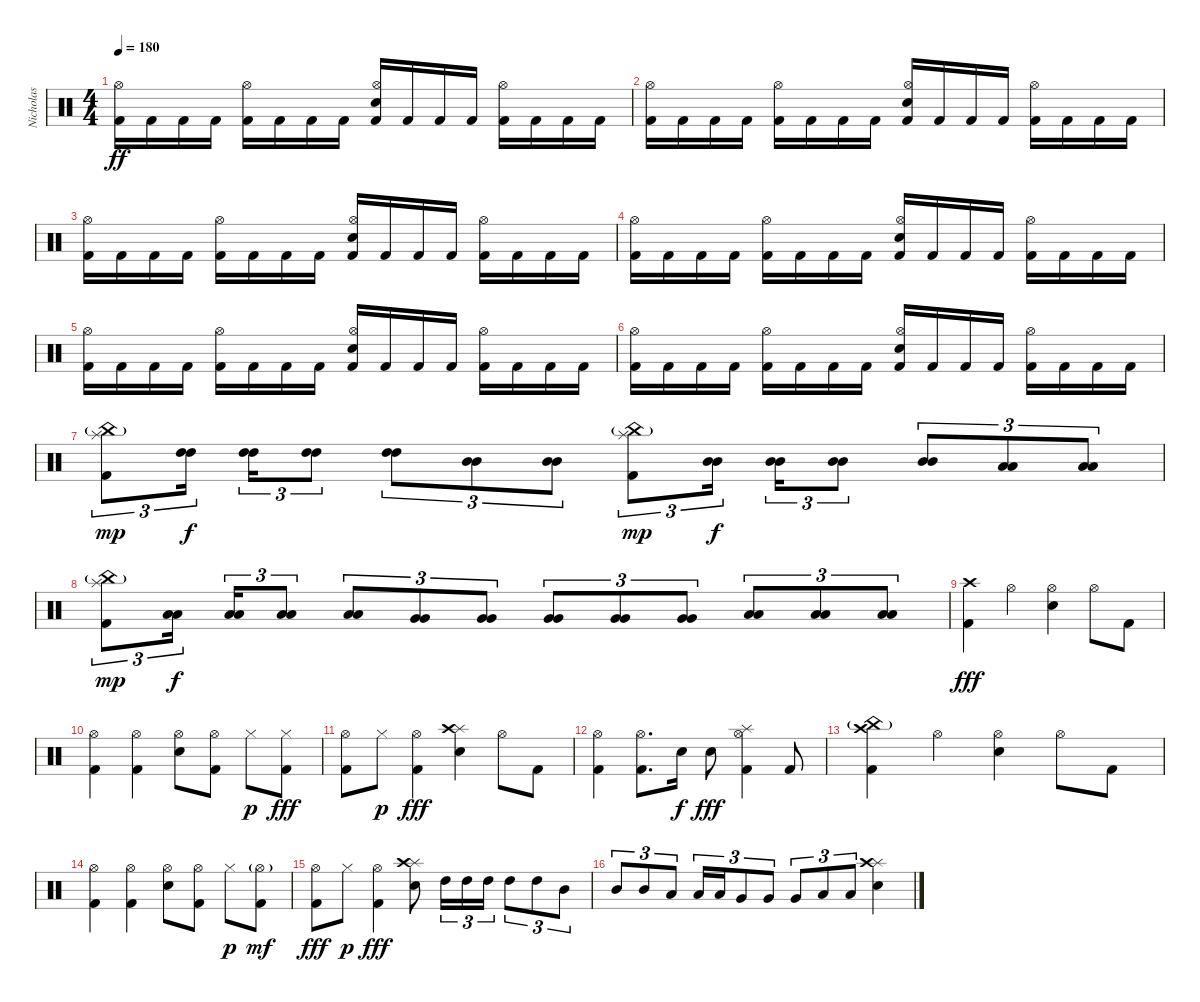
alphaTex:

\track ("Nicholas" "Nicholas") {instrument percussion}
\staff {score}
\articulation defaults
\ts (4 4)
\tempo 180
\clef neutral
\ks c
("Kick (hit) 2" "Hi-Hat (open)").16{dy ff} "Kick (hit) 2".16 "Kick (hit) 2".16 "Kick (hit) 2".16 ("Kick (hit) 2" "Hi-Hat (open)").16 "Kick (hit) 2".16 "Kick (hit) 2".16 "Kick (hit) 2".16 ("Kick (hit) 2" "Electric Snare (hit)" "Hi-Hat (open)").16 "Kick (hit) 2".16 "Kick (hit) 2".16 "Kick (hit) 2".16 ("Kick (hit) 2" "Hi-Hat (open)").16 "Kick (hit) 2".16 "Kick (hit) 2".16 "Kick (hit) 2".16 |
("Kick (hit) 2" "Hi-Hat (open)").16 "Kick (hit) 2".16 "Kick (hit) 2".16 "Kick (hit) 2".16 ("Kick (hit) 2" "Hi-Hat (open)").16 "Kick (hit) 2".16 "Kick (hit) 2".16 "Kick (hit) 2".16 ("Kick (hit) 2" "Electric Snare (hit)" "Hi-Hat (open)").16 "Kick (hit) 2".16 "Kick (hit) 2".16 "Kick (hit) 2".16 ("Kick (hit) 2" "Hi-Hat (open)").16 "Kick (hit) 2".16 "Kick (hit) 2".16 "Kick (hit) 2".16 |
("Kick (hit) 2" "Hi-Hat (open)").16 "Kick (hit) 2".16 "Kick (hit) 2".16 "Kick (hit) 2".16 ("Kick (hit) 2" "Hi-Hat (open)").16 "Kick (hit) 2".16 "Kick (hit) 2".16 "Kick (hit) 2".16 ("Kick (hit) 2" "Electric Snare (hit)" "Hi-Hat (open)").16 "Kick (hit) 2".16 "Kick (hit) 2".16 "Kick (hit) 2".16 ("Kick (hit) 2" "Hi-Hat (open)").16 "Kick (hit) 2".16 "Kick (hit) 2".16 "Kick (hit) 2".16 |
("Kick (hit) 2" "Hi-Hat (open)").16 "Kick (hit) 2".16 "Kick (hit) 2".16 "Kick (hit) 2".16 ("Kick (hit) 2" "Hi-Hat (open)").16 "Kick (hit) 2".16 "Kick (hit) 2".16 "Kick (hit) 2".16 ("Kick (hit) 2" "Electric Snare (hit)" "Hi-Hat (open)").16 "Kick (hit) 2".16 "Kick (hit) 2".16 "Kick (hit) 2".16 ("Kick (hit) 2" "Hi-Hat (open)").16 "Kick (hit) 2".16 "Kick (hit) 2".16 "Kick (hit) 2".16 |
("Kick (hit) 2" "Hi-Hat (open)").16 "Kick (hit) 2".16 "Kick (hit) 2".16 "Kick (hit) 2".16 ("Kick (hit) 2" "Hi-Hat (open)").16 "Kick (hit) 2".16 "Kick (hit) 2".16 "Kick (hit) 2".16 ("Kick (hit) 2" "Electric Snare (hit)" "Hi-Hat (open)").16 "Kick (hit) 2".16 "Kick (hit) 2".16 "Kick (hit) 2".16 ("Kick (hit) 2" "Hi-Hat (open)").16 "Kick (hit) 2".16 "Kick (hit) 2".16 "Kick (hit) 2".16 |
("Kick (hit) 2" "Hi-Hat (open)").16 "Kick (hit) 2".16 "Kick (hit) 2".16 "Kick (hit) 2".16 ("Kick (hit) 2" "Hi-Hat (open)").16 "Kick (hit) 2".16 "Kick (hit) 2".16 "Kick (hit) 2".16 ("Kick (hit) 2" "Electric Snare (hit)" "Hi-Hat (open)").16 "Kick (hit) 2".16 "Kick (hit) 2".16 "Kick (hit) 2".16 ("Kick (hit) 2" "Hi-Hat (open)").16 "Kick (hit) 2".16 "Kick (hit) 2".16 "Kick (hit) 2".16 |
("Kick (hit) 2" "Splash (hit)" "China (hit)"{g}).8{tu (3 2) dy mp} ("High Tom (hit)" "High Tom (hit)").16{tu (3 2) dy f beam splitsecondary} ("High Tom (hit)" "High Tom (hit)").16{tu (3 2)} ("High Tom (hit)" "High Tom (hit)").8{tu (3 2)} ("High Tom (hit)" "High Tom (hit)").8{tu (3 2)} ("Mid Tom (hit)" "Mid Tom (hit)").8{tu (3 2)} ("Mid Tom (hit)" "Mid Tom (hit)").8{tu (3 2)} ("Kick (hit) 2" "Splash (hit)" "China (hit)"{g}).8{tu (3 2) dy mp} ("Mid Tom (hit)" "Mid Tom (hit)").16{tu (3 2) dy f beam splitsecondary} ("Mid Tom (hit)" "Mid Tom (hit)").16{tu (3 2)} ("Mid Tom (hit)" "Mid Tom (hit)").8{tu (3 2)} ("Mid Tom (hit)" "Mid Tom (hit)").8{tu (3 2)} ("Low Tom (hit)" "Low Tom (hit)").8{tu (3 2)} ("Low Tom (hit)" "Low Tom (hit)").8{tu (3 2)} |
("Kick (hit) 2" "Splash (hit)" "China (hit)"{g}).8{tu (3 2) dy mp} ("Low Tom (hit)" "Low Tom (hit)").16{tu (3 2) dy f beam splitsecondary} ("Low Tom (hit)" "Low Tom (hit)").16{tu (3 2)} ("Low Tom (hit)" "Low Tom (hit)").8{tu (3 2)} ("Low Tom (hit)" "Low Tom (hit)").8{tu (3 2)} ("Very Low Tom (hit)" "Very Low Tom (hit)").8{tu (3 2)} ("Very Low Tom (hit)" "Very Low Tom (hit)").8{tu (3 2)} ("Very Low Tom (hit)" "Very Low Tom (hit)").8{tu (3 2)} ("Very Low Tom (hit)" "Very Low Tom (hit)").8{tu (3 2)} ("Very Low Tom (hit)" "Very Low Tom (hit)").8{tu (3 2)} ("Low Floor Tom (hit)" "Low Floor Tom (hit)").8{tu (3 2)} ("Low Floor Tom (hit)" "Low Floor Tom (hit)").8{tu (3 2)} ("Low Floor Tom (hit)" "Low Floor Tom (hit)").8{tu (3 2)} |
("Kick (hit) 2" "Crash high (hit)").4{dy fff} "Hi-Hat (open)".4 ("Electric Snare (hit)" "Hi-Hat (open)").4 "Hi-Hat (open)".8 "Kick (hit) 2".8 |
("Kick (hit) 2" "Hi-Hat (open)").4 ("Kick (hit) 2" "Hi-Hat (open)").4 ("Electric Snare (hit)" "Hi-Hat (open)").8 ("Kick (hit) 2" "Hi-Hat (open)").8 "Hi-Hat (closed)".8{dy p} ("Kick (hit) 2" "Hi-Hat (closed)").8{dy fff} |
("Kick (hit) 2" "Hi-Hat (open)").8 "Hi-Hat (closed)".8{dy p} ("Kick (hit) 2" "Hi-Hat (open)").4{dy fff} ("Electric Snare (hit)" "Splash (hit)" "Crash high (hit)").4 "Hi-Hat (open)".8 "Kick (hit) 2".8 |
("Kick (hit) 2" "Hi-Hat (open)").4 ("Kick (hit) 2" "Hi-Hat (open)").8{d} "Electric Snare (hit)".16{dy f} "Electric Snare (hit)".8{dy fff} ("Kick (hit) 2" "Hi-Hat (open)" "Splash (hit)").4 "Kick (hit) 2".8 |
("Kick (hit) 2" "Crash high (hit)" "China (hit)"{g}).4 "Hi-Hat (open)".4 ("Electric Snare (hit)" "Hi-Hat (open)").4 "Hi-Hat (open)".8 "Kick (hit) 2".8 |
("Kick (hit) 2" "Hi-Hat (open)").4 ("Kick (hit) 2" "Hi-Hat (open)").4 ("Electric Snare (hit)" "Hi-Hat (open)").8 ("Kick (hit) 2" "Hi-Hat (open)").8 "Hi-Hat (closed)".8{dy p} ("Kick (hit) 2" "Hi-Hat (open)"{g}).8{dy mf} |
("Kick (hit) 2" "Hi-Hat (open)").8{dy fff} "Hi-Hat (closed)".8{dy p} ("Kick (hit) 2" "Hi-Hat (open)").4{dy fff} ("Electric Snare (hit)" "Splash (hit)" "Crash high (hit)").8 "High Tom (hit)".16{tu (3 2)} "High Tom (hit)".16{tu (3 2)} "High Tom (hit)".16{tu (3 2)} "High Tom (hit)".8{tu (3 2)} "High Tom (hit)".8{tu (3 2)} "Mid Tom (hit)".8{tu (3 2)} |
"Mid Tom (hit)".8{tu (3 2)} "Mid Tom (hit)".8{tu (3 2)} "Low Tom (hit)".8{tu (3 2)} "Low Tom (hit)".16{tu (3 2)} "Low Tom (hit)".16{tu (3 2)} "Very Low Tom (hit)".8{tu (3 2)} "Very Low Tom (hit)".8{tu (3 2)} "Very Low Tom (hit)".8{tu (3 2)} "Low Floor Tom (hit)".8{tu (3 2)} "Low Floor Tom (hit)".8{tu (3 2)} ("Electric Snare (hit)" "Splash (hit)" "Crash high (hit)").4
